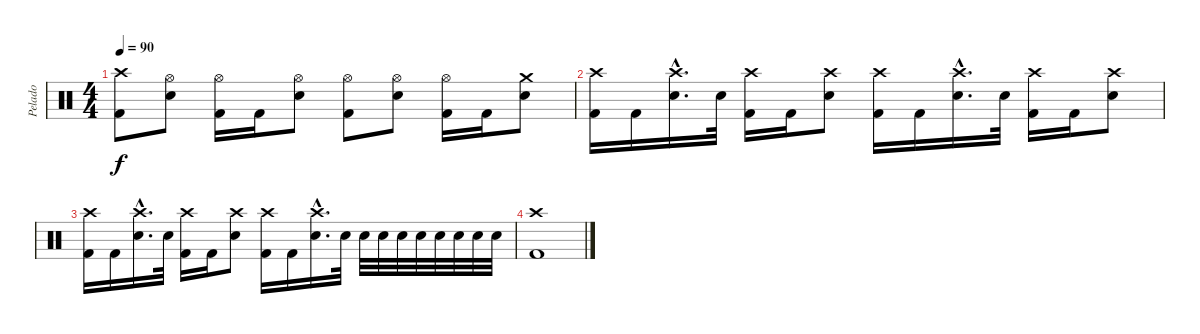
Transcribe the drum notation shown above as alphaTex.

\track ("Pelado" "Pelado") {instrument percussion}
\staff {score}
\articulation defaults
\ts (4 4)
\tempo 90
\clef neutral
\ks c
("Crash high (hit)" "Kick (hit) 2").8{dy f} ("Hi-Hat (open)" "Electric Snare (hit)").8 ("Hi-Hat (open)" "Kick (hit) 2").16 "Kick (hit) 2".16 ("Hi-Hat (open)" "Electric Snare (hit)").8 ("Hi-Hat (open)" "Kick (hit) 2").8 ("Hi-Hat (open)" "Electric Snare (hit)").8 ("Hi-Hat (open)" "Kick (hit) 2").16 "Kick (hit) 2".16 ("Crash medium (hit)" "Electric Snare (hit)").8 |
("Crash high (hit)" "Kick (hit) 2").16 "Kick (hit) 2".16 ("Crash high (hit)"{hac} "Electric Snare (hit)"{hac}).16{d} "Electric Snare (hit)".32 ("Crash high (hit)" "Kick (hit) 2").16 "Kick (hit) 2".16 ("Crash high (hit)" "Electric Snare (hit)").8 ("Crash high (hit)" "Kick (hit) 2").16 "Kick (hit) 2".16 ("Crash high (hit)"{hac} "Electric Snare (hit)"{hac}).16{d} "Electric Snare (hit)".32 ("Crash high (hit)" "Kick (hit) 2").16 "Kick (hit) 2".16 ("Crash high (hit)" "Electric Snare (hit)").8 |
("Crash high (hit)" "Kick (hit) 2").16 "Kick (hit) 2".16 ("Crash high (hit)"{hac} "Electric Snare (hit)"{hac}).16{d} "Electric Snare (hit)".32 ("Crash high (hit)" "Kick (hit) 2").16 "Kick (hit) 2".16 ("Crash high (hit)" "Electric Snare (hit)").8 ("Crash high (hit)" "Kick (hit) 2").16 "Kick (hit) 2".16 ("Crash high (hit)"{hac} "Electric Snare (hit)"{hac}).16{d} "Electric Snare (hit)".32 "Electric Snare (hit)".32 "Electric Snare (hit)".32 "Electric Snare (hit)".32 "Electric Snare (hit)".32 "Electric Snare (hit)".32 "Electric Snare (hit)".32 "Electric Snare (hit)".32 "Electric Snare (hit)".32 |
("Crash high (hit)" "Kick (hit) 2").1
